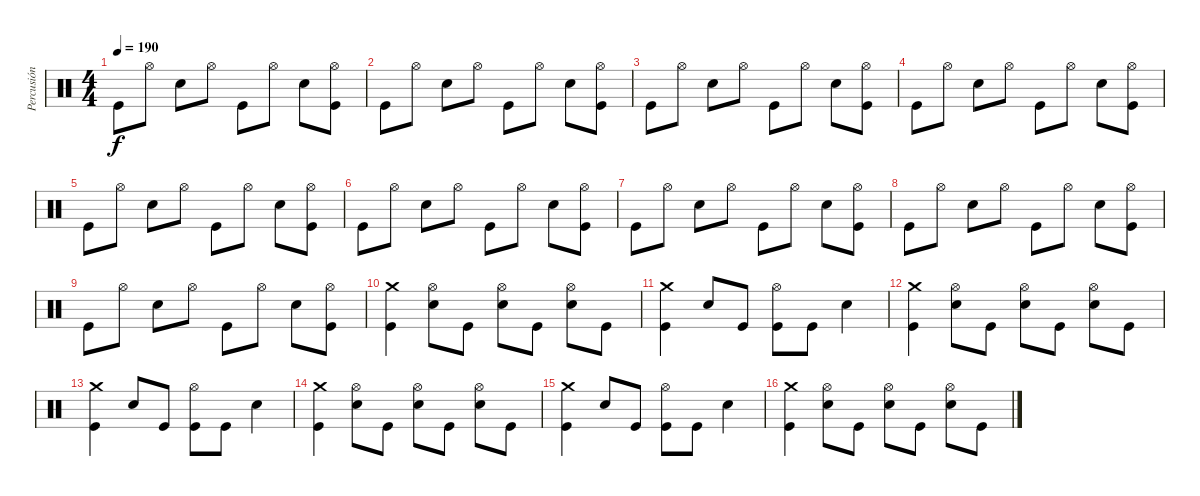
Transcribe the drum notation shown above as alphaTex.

\track ("Percusión" "Percusión") {instrument percussion}
\staff {score}
\articulation defaults
\ts (4 4)
\tempo 190
\clef neutral
\ks c "Kick (hit)".8{dy f} "Hi-Hat (open)".8 "Electric Snare (hit)".8 "Hi-Hat (open)".8 "Kick (hit)".8 "Hi-Hat (open)".8 "Electric Snare (hit)".8
("Hi-Hat (open)" "Kick (hit)").8 |
"Kick (hit)".8 "Hi-Hat (open)".8 "Electric Snare (hit)".8 "Hi-Hat (open)".8 "Kick (hit)".8 "Hi-Hat (open)".8 "Electric Snare (hit)".8 ("Hi-Hat (open)" "Kick (hit)").8 |
"Kick (hit)".8 "Hi-Hat (open)".8 "Electric Snare (hit)".8 "Hi-Hat (open)".8 "Kick (hit)".8 "Hi-Hat (open)".8 "Electric Snare (hit)".8 ("Hi-Hat (open)" "Kick (hit)").8 |
"Kick (hit)".8 "Hi-Hat (open)".8 "Electric Snare (hit)".8 "Hi-Hat (open)".8 "Kick (hit)".8 "Hi-Hat (open)".8 "Electric Snare (hit)".8 ("Hi-Hat (open)" "Kick (hit)").8 |
"Kick (hit)".8 "Hi-Hat (open)".8 "Electric Snare (hit)".8 "Hi-Hat (open)".8 "Kick (hit)".8 "Hi-Hat (open)".8 "Electric Snare (hit)".8 ("Hi-Hat (open)" "Kick (hit)").8 |
"Kick (hit)".8 "Hi-Hat (open)".8 "Electric Snare (hit)".8 "Hi-Hat (open)".8 "Kick (hit)".8 "Hi-Hat (open)".8 "Electric Snare (hit)".8 ("Hi-Hat (open)" "Kick (hit)").8 |
"Kick (hit)".8 "Hi-Hat (open)".8 "Electric Snare (hit)".8 "Hi-Hat (open)".8 "Kick (hit)".8 "Hi-Hat (open)".8 "Electric Snare (hit)".8 ("Hi-Hat (open)" "Kick (hit)").8 |
"Kick (hit)".8 "Hi-Hat (open)".8 "Electric Snare (hit)".8 "Hi-Hat (open)".8 "Kick (hit)".8 "Hi-Hat (open)".8 "Electric Snare (hit)".8 ("Hi-Hat (open)" "Kick (hit)").8 |
"Kick (hit)".8 "Hi-Hat (open)".8 "Electric Snare (hit)".8 "Hi-Hat (open)".8 "Kick (hit)".8 "Hi-Hat (open)".8 "Electric Snare (hit)".8 ("Hi-Hat (open)" "Kick (hit)").8 |
("Crash medium (hit)" "Kick (hit)").4 ("Hi-Hat (open)" "Electric Snare (hit)").8 "Kick (hit)".8 ("Hi-Hat (open)" "Electric Snare (hit)").8 "Kick (hit)".8 ("Hi-Hat (open)" "Electric Snare (hit)").8 "Kick (hit)".8 |
("Crash medium (hit)" "Kick (hit)").4 "Electric Snare (hit)".8 "Kick (hit)".8 ("Hi-Hat (open)" "Kick (hit)").8 "Kick (hit)".8 "Electric Snare (hit)".4 |
("Crash medium (hit)" "Kick (hit)").4 ("Hi-Hat (open)" "Electric Snare (hit)").8 "Kick (hit)".8 ("Hi-Hat (open)" "Electric Snare (hit)").8 "Kick (hit)".8 ("Hi-Hat (open)" "Electric Snare (hit)").8 "Kick (hit)".8 |
("Crash medium (hit)" "Kick (hit)").4 "Electric Snare (hit)".8 "Kick (hit)".8 ("Hi-Hat (open)" "Kick (hit)").8 "Kick (hit)".8 "Electric Snare (hit)".4 |
("Crash medium (hit)" "Kick (hit)").4 ("Hi-Hat (open)" "Electric Snare (hit)").8 "Kick (hit)".8 ("Hi-Hat (open)" "Electric Snare (hit)").8 "Kick (hit)".8 ("Hi-Hat (open)" "Electric Snare (hit)").8 "Kick (hit)".8 |
("Crash medium (hit)" "Kick (hit)").4 "Electric Snare (hit)".8 "Kick (hit)".8 ("Hi-Hat (open)" "Kick (hit)").8 "Kick (hit)".8 "Electric Snare (hit)".4 |
("Crash medium (hit)" "Kick (hit)").4 ("Hi-Hat (open)" "Electric Snare (hit)").8 "Kick (hit)".8 ("Hi-Hat (open)" "Electric Snare (hit)").8 "Kick (hit)".8 ("Hi-Hat (open)" "Electric Snare (hit)").8 "Kick (hit)".8
